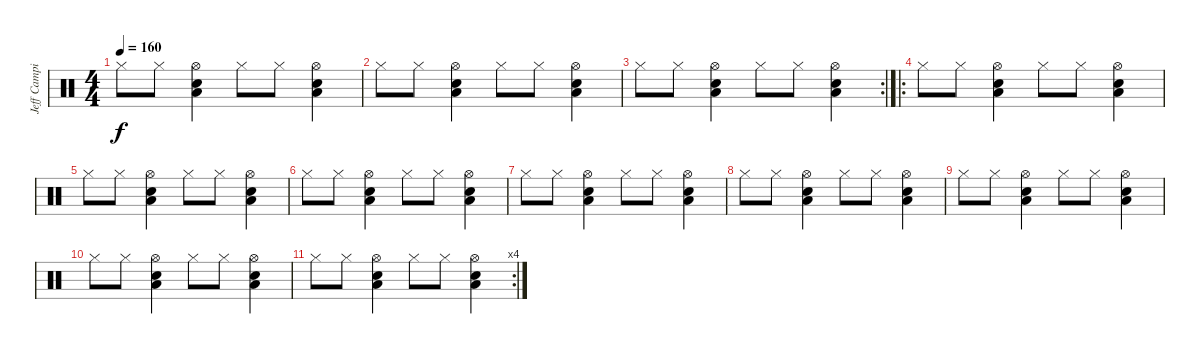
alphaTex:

\track ("Jeff Campitelli" "Jeff Campi") {instrument percussion}
\staff {score}
\articulation defaults
\ts (4 4)
\tempo 160
\clef neutral
\ks c "Hi-Hat (closed)".8{dy f} "Hi-Hat (closed)".8
("Low Floor Tom (hit)" "Snare (hit) 2" "Hi-Hat (open)").4 "Hi-Hat (closed)".8 "Hi-Hat (closed)".8 ("Low Floor Tom (hit)" "Snare (hit) 2" "Hi-Hat (open)").4 |
"Hi-Hat (closed)".8 "Hi-Hat (closed)".8 ("Low Floor Tom (hit)" "Snare (hit) 2" "Hi-Hat (open)").4 "Hi-Hat (closed)".8 "Hi-Hat (closed)".8 ("Low Floor Tom (hit)" "Snare (hit) 2" "Hi-Hat (open)").4 |
\rc 2 "Hi-Hat (closed)".8 "Hi-Hat (closed)".8
("Low Floor Tom (hit)" "Snare (hit) 2" "Hi-Hat (open)").4 "Hi-Hat (closed)".8 "Hi-Hat (closed)".8 ("Low Floor Tom (hit)" "Snare (hit) 2" "Hi-Hat (open)").4 |
\ro "Hi-Hat (closed)".8 "Hi-Hat (closed)".8
("Low Floor Tom (hit)" "Snare (hit) 2" "Hi-Hat (open)").4 "Hi-Hat (closed)".8 "Hi-Hat (closed)".8 ("Low Floor Tom (hit)" "Snare (hit) 2" "Hi-Hat (open)").4 |
"Hi-Hat (closed)".8 "Hi-Hat (closed)".8 ("Low Floor Tom (hit)" "Snare (hit) 2" "Hi-Hat (open)").4 "Hi-Hat (closed)".8 "Hi-Hat (closed)".8 ("Low Floor Tom (hit)" "Snare (hit) 2" "Hi-Hat (open)").4 |
"Hi-Hat (closed)".8 "Hi-Hat (closed)".8 ("Low Floor Tom (hit)" "Snare (hit) 2" "Hi-Hat (open)").4 "Hi-Hat (closed)".8 "Hi-Hat (closed)".8 ("Low Floor Tom (hit)" "Snare (hit) 2" "Hi-Hat (open)").4 |
"Hi-Hat (closed)".8 "Hi-Hat (closed)".8 ("Low Floor Tom (hit)" "Snare (hit) 2" "Hi-Hat (open)").4 "Hi-Hat (closed)".8 "Hi-Hat (closed)".8 ("Low Floor Tom (hit)" "Snare (hit) 2" "Hi-Hat (open)").4 |
"Hi-Hat (closed)".8 "Hi-Hat (closed)".8 ("Low Floor Tom (hit)" "Snare (hit) 2" "Hi-Hat (open)").4 "Hi-Hat (closed)".8 "Hi-Hat (closed)".8 ("Low Floor Tom (hit)" "Snare (hit) 2" "Hi-Hat (open)").4 |
"Hi-Hat (closed)".8 "Hi-Hat (closed)".8 ("Low Floor Tom (hit)" "Snare (hit) 2" "Hi-Hat (open)").4 "Hi-Hat (closed)".8 "Hi-Hat (closed)".8 ("Low Floor Tom (hit)" "Snare (hit) 2" "Hi-Hat (open)").4 |
"Hi-Hat (closed)".8 "Hi-Hat (closed)".8 ("Low Floor Tom (hit)" "Snare (hit) 2" "Hi-Hat (open)").4 "Hi-Hat (closed)".8 "Hi-Hat (closed)".8 ("Low Floor Tom (hit)" "Snare (hit) 2" "Hi-Hat (open)").4 |
\rc 4 "Hi-Hat (closed)".8 "Hi-Hat (closed)".8
("Low Floor Tom (hit)" "Snare (hit) 2" "Hi-Hat (open)").4 "Hi-Hat (closed)".8 "Hi-Hat (closed)".8 ("Low Floor Tom (hit)" "Snare (hit) 2" "Hi-Hat (open)").4
